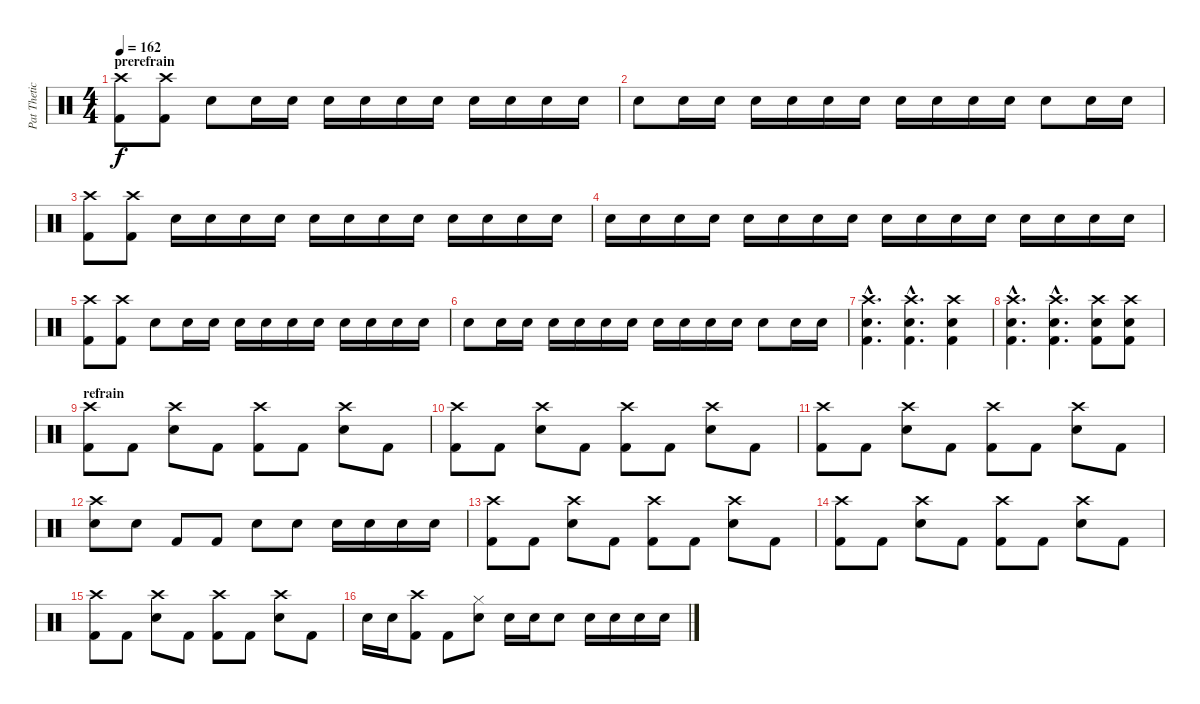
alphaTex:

\track ("Pat Thetic" "Pat Thetic") {instrument percussion}
\staff {score}
\articulation defaults
\ts (4 4)
\section ("" "prerefrain")
\tempo 162
\clef neutral
\ks c
("Crash high (hit)" "Kick (hit) 2").8{dy f} ("Crash high (hit)" "Kick (hit) 2").8 "Snare (hit) 2".8 "Snare (hit) 2".16 "Snare (hit) 2".16 "Snare (hit) 2".16 "Snare (hit) 2".16 "Snare (hit) 2".16 "Snare (hit) 2".16 "Snare (hit) 2".16 "Snare (hit) 2".16 "Snare (hit) 2".16 "Snare (hit) 2".16 |
"Snare (hit) 2".8 "Snare (hit) 2".16 "Snare (hit) 2".16 "Snare (hit) 2".16 "Snare (hit) 2".16 "Snare (hit) 2".16 "Snare (hit) 2".16 "Snare (hit) 2".16 "Snare (hit) 2".16 "Snare (hit) 2".16 "Snare (hit) 2".16 "Snare (hit) 2".8 "Snare (hit) 2".16 "Snare (hit) 2".16 |
("Crash high (hit)" "Kick (hit) 2").8 ("Crash high (hit)" "Kick (hit) 2").8 "Snare (hit) 2".16 "Snare (hit) 2".16 "Snare (hit) 2".16 "Snare (hit) 2".16 "Snare (hit) 2".16 "Snare (hit) 2".16 "Snare (hit) 2".16 "Snare (hit) 2".16 "Snare (hit) 2".16 "Snare (hit) 2".16 "Snare (hit) 2".16 "Snare (hit) 2".16 |
"Snare (hit) 2".16 "Snare (hit) 2".16 "Snare (hit) 2".16 "Snare (hit) 2".16 "Snare (hit) 2".16 "Snare (hit) 2".16 "Snare (hit) 2".16 "Snare (hit) 2".16 "Snare (hit) 2".16 "Snare (hit) 2".16 "Snare (hit) 2".16 "Snare (hit) 2".16 "Snare (hit) 2".16 "Snare (hit) 2".16 "Snare (hit) 2".16 "Snare (hit) 2".16 |
("Crash high (hit)" "Kick (hit) 2").8 ("Crash high (hit)" "Kick (hit) 2").8 "Snare (hit) 2".8 "Snare (hit) 2".16 "Snare (hit) 2".16 "Snare (hit) 2".16 "Snare (hit) 2".16 "Snare (hit) 2".16 "Snare (hit) 2".16 "Snare (hit) 2".16 "Snare (hit) 2".16 "Snare (hit) 2".16 "Snare (hit) 2".16 |
"Snare (hit) 2".8 "Snare (hit) 2".16 "Snare (hit) 2".16 "Snare (hit) 2".16 "Snare (hit) 2".16 "Snare (hit) 2".16 "Snare (hit) 2".16 "Snare (hit) 2".16 "Snare (hit) 2".16 "Snare (hit) 2".16 "Snare (hit) 2".16 "Snare (hit) 2".8 "Snare (hit) 2".16 "Snare (hit) 2".16 |
("Crash high (hit)"{hac} "Kick (hit) 2"{hac} "Snare (hit) 2"{hac}).4{d} ("Crash high (hit)"{hac} "Kick (hit) 2"{hac} "Snare (hit) 2"{hac}).4{d} ("Crash high (hit)" "Kick (hit) 2" "Snare (hit) 2").4 |
("Crash high (hit)"{hac} "Kick (hit) 2"{hac} "Snare (hit) 2"{hac}).4{d} ("Crash high (hit)"{hac} "Kick (hit) 2"{hac} "Snare (hit) 2"{hac}).4{d} ("Crash high (hit)" "Kick (hit) 2" "Snare (hit) 2").8 ("Crash high (hit)" "Kick (hit) 2" "Snare (hit) 2").8 |
\section ("" "refrain")
("Crash high (hit)" "Kick (hit) 2").8 "Kick (hit) 2".8 ("Crash high (hit)" "Snare (hit) 2").8 "Kick (hit) 2".8 ("Crash high (hit)" "Kick (hit) 2").8 "Kick (hit) 2".8 ("Crash high (hit)" "Snare (hit) 2").8 "Kick (hit) 2".8 |
("Crash high (hit)" "Kick (hit) 2").8 "Kick (hit) 2".8 ("Crash high (hit)" "Snare (hit) 2").8 "Kick (hit) 2".8 ("Crash high (hit)" "Kick (hit) 2").8 "Kick (hit) 2".8 ("Crash high (hit)" "Snare (hit) 2").8 "Kick (hit) 2".8 |
("Crash high (hit)" "Kick (hit) 2").8 "Kick (hit) 2".8 ("Crash high (hit)" "Snare (hit) 2").8 "Kick (hit) 2".8 ("Crash high (hit)" "Kick (hit) 2").8 "Kick (hit) 2".8 ("Crash high (hit)" "Snare (hit) 2").8 "Kick (hit) 2".8 |
("Crash high (hit)" "Snare (hit) 2").8 "Snare (hit) 2".8 "Kick (hit) 2".8 "Kick (hit) 2".8 "Snare (hit) 2".8 "Snare (hit) 2".8 "Snare (hit) 2".16 "Snare (hit) 2".16 "Snare (hit) 2".16 "Snare (hit) 2".16 |
("Crash high (hit)" "Kick (hit) 2").8 "Kick (hit) 2".8 ("Crash high (hit)" "Snare (hit) 2").8 "Kick (hit) 2".8 ("Crash high (hit)" "Kick (hit) 2").8 "Kick (hit) 2".8 ("Crash high (hit)" "Snare (hit) 2").8 "Kick (hit) 2".8 |
("Crash high (hit)" "Kick (hit) 2").8 "Kick (hit) 2".8 ("Crash high (hit)" "Snare (hit) 2").8 "Kick (hit) 2".8 ("Crash high (hit)" "Kick (hit) 2").8 "Kick (hit) 2".8 ("Crash high (hit)" "Snare (hit) 2").8 "Kick (hit) 2".8 |
("Crash high (hit)" "Kick (hit) 2").8 "Kick (hit) 2".8 ("Crash high (hit)" "Snare (hit) 2").8 "Kick (hit) 2".8 ("Crash high (hit)" "Kick (hit) 2").8 "Kick (hit) 2".8 ("Crash high (hit)" "Snare (hit) 2").8 "Kick (hit) 2".8 |
"Snare (hit) 2".16 "Snare (hit) 2".16 ("Crash high (hit)" "Kick (hit) 2").8 "Kick (hit) 2".8 ("Hi-Hat (closed)" "Snare (hit) 2").8 "Snare (hit) 2".16 "Snare (hit) 2".16 "Snare (hit) 2".8 "Snare (hit) 2".16 "Snare (hit) 2".16 "Snare (hit) 2".16 "Snare (hit) 2".16
